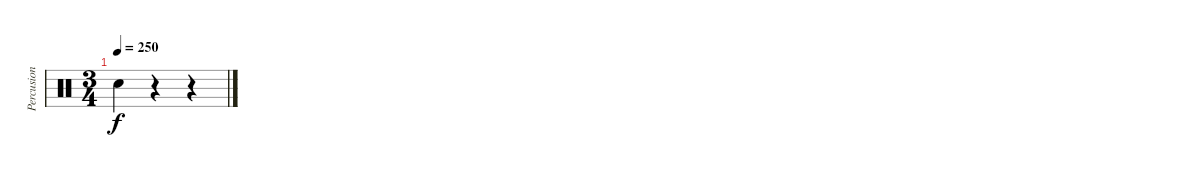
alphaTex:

\track ("Percusion" "Percusion") {instrument percussion}
\staff {score}
\articulation defaults
\ts (3 4)
\tempo 250
\clef neutral
\ks c "Hand Clap (hit)".4{dy f}
r.4 r.4
